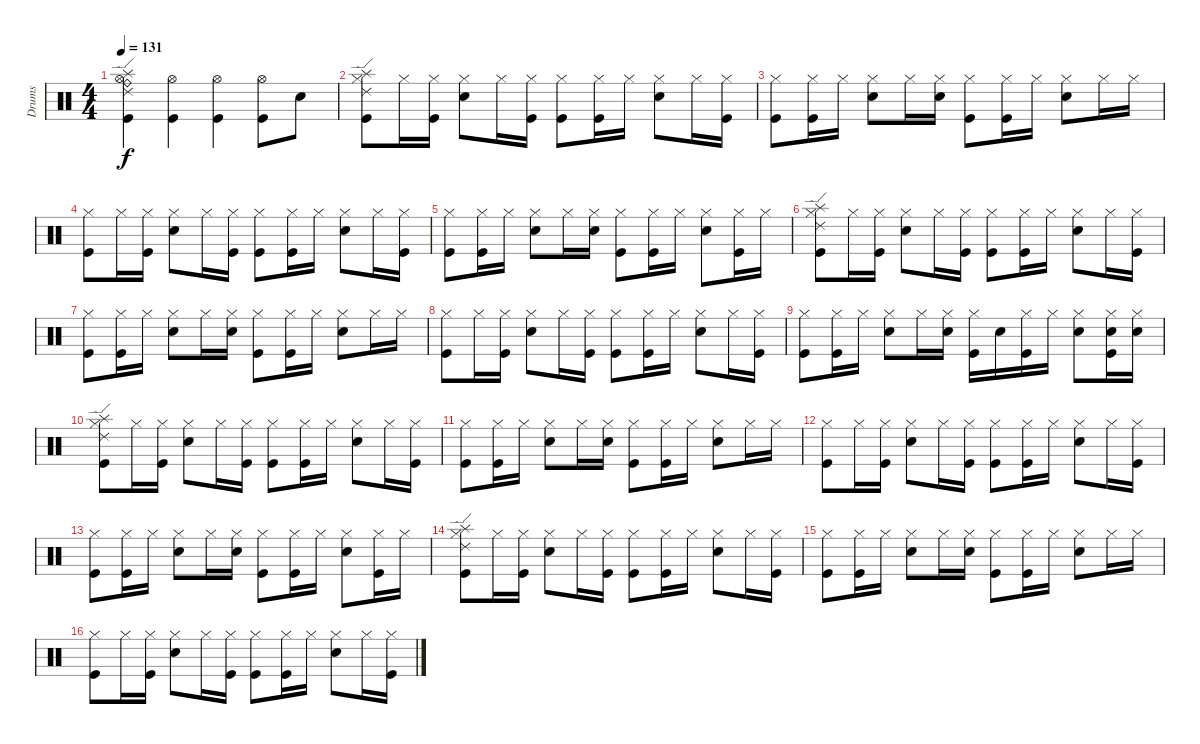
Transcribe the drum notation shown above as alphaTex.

\track ("Drums" "Drums") {instrument percussion}
\staff {score}
\articulation defaults
\ts (4 4)
\tempo 131
\clef neutral
\ks c
("Hi-Hat (open)" "Splash (hit)" "Ride (bell)" "Ride (edge) 2" "Kick (hit)").4{dy f} ("Hi-Hat (open)" "Kick (hit)").4 ("Hi-Hat (open)" "Kick (hit)").4 ("Hi-Hat (open)" "Kick (hit)").8 "Electric Snare (hit)".8 |
("Hi-Hat (closed)" "Splash (hit)" "Ride (edge) 2" "Kick (hit)").8 "Hi-Hat (closed)".16 ("Hi-Hat (closed)" "Kick (hit)").16 ("Hi-Hat (closed)" "Electric Snare (hit)").8 "Hi-Hat (closed)".16 ("Hi-Hat (closed)" "Kick (hit)").16 ("Hi-Hat (closed)" "Kick (hit)").8 ("Hi-Hat (closed)" "Kick (hit)").16 "Hi-Hat (closed)".16 ("Hi-Hat (closed)" "Electric Snare (hit)").8 "Hi-Hat (closed)".16 ("Hi-Hat (closed)" "Kick (hit)").16 |
("Hi-Hat (closed)" "Kick (hit)").8 ("Hi-Hat (closed)" "Kick (hit)").16 "Hi-Hat (closed)".16 ("Hi-Hat (closed)" "Electric Snare (hit)").8 "Hi-Hat (closed)".16 ("Hi-Hat (closed)" "Electric Snare (hit)").16 ("Hi-Hat (closed)" "Kick (hit)").8 ("Hi-Hat (closed)" "Kick (hit)").16 "Hi-Hat (closed)".16 ("Hi-Hat (closed)" "Electric Snare (hit)").8 "Hi-Hat (closed)".16 "Hi-Hat (closed)".16 |
("Hi-Hat (closed)" "Kick (hit)").8 "Hi-Hat (closed)".16 ("Hi-Hat (closed)" "Kick (hit)").16 ("Hi-Hat (closed)" "Electric Snare (hit)").8 "Hi-Hat (closed)".16 ("Hi-Hat (closed)" "Kick (hit)").16 ("Hi-Hat (closed)" "Kick (hit)").8 ("Hi-Hat (closed)" "Kick (hit)").16 "Hi-Hat (closed)".16 ("Hi-Hat (closed)" "Electric Snare (hit)").8 "Hi-Hat (closed)".16 ("Hi-Hat (closed)" "Kick (hit)").16 |
("Hi-Hat (closed)" "Kick (hit)").8 ("Hi-Hat (closed)" "Kick (hit)").16 "Hi-Hat (closed)".16 ("Hi-Hat (closed)" "Electric Snare (hit)").8 "Hi-Hat (closed)".16 ("Hi-Hat (closed)" "Electric Snare (hit)").16 ("Hi-Hat (closed)" "Kick (hit)").8 ("Hi-Hat (closed)" "Kick (hit)").16 "Hi-Hat (closed)".16 ("Hi-Hat (closed)" "Electric Snare (hit)").8 ("Hi-Hat (closed)" "Kick (hit)").16 "Hi-Hat (closed)".16 |
("Hi-Hat (closed)" "Splash (hit)" "Ride (edge) 2" "Kick (hit)").8 "Hi-Hat (closed)".16 ("Hi-Hat (closed)" "Kick (hit)").16 ("Hi-Hat (closed)" "Electric Snare (hit)").8 "Hi-Hat (closed)".16 ("Hi-Hat (closed)" "Kick (hit)").16 ("Hi-Hat (closed)" "Kick (hit)").8 ("Hi-Hat (closed)" "Kick (hit)").16 "Hi-Hat (closed)".16 ("Hi-Hat (closed)" "Electric Snare (hit)").8 "Hi-Hat (closed)".16 ("Hi-Hat (closed)" "Kick (hit)").16 |
("Hi-Hat (closed)" "Kick (hit)").8 ("Hi-Hat (closed)" "Kick (hit)").16 "Hi-Hat (closed)".16 ("Hi-Hat (closed)" "Electric Snare (hit)").8 "Hi-Hat (closed)".16 ("Hi-Hat (closed)" "Electric Snare (hit)").16 ("Hi-Hat (closed)" "Kick (hit)").8 ("Hi-Hat (closed)" "Kick (hit)").16 "Hi-Hat (closed)".16 ("Hi-Hat (closed)" "Electric Snare (hit)").8 "Hi-Hat (closed)".16 "Hi-Hat (closed)".16 |
("Hi-Hat (closed)" "Kick (hit)").8 "Hi-Hat (closed)".16 ("Hi-Hat (closed)" "Kick (hit)").16 ("Hi-Hat (closed)" "Electric Snare (hit)").8 "Hi-Hat (closed)".16 ("Hi-Hat (closed)" "Kick (hit)").16 ("Hi-Hat (closed)" "Kick (hit)").8 ("Hi-Hat (closed)" "Kick (hit)").16 "Hi-Hat (closed)".16 ("Hi-Hat (closed)" "Electric Snare (hit)").8 "Hi-Hat (closed)".16 ("Hi-Hat (closed)" "Kick (hit)").16 |
("Hi-Hat (closed)" "Kick (hit)").8 ("Hi-Hat (closed)" "Kick (hit)").16 "Hi-Hat (closed)".16 ("Hi-Hat (closed)" "Electric Snare (hit)").8 "Hi-Hat (closed)".16 ("Hi-Hat (closed)" "Electric Snare (hit)").16 ("Hi-Hat (closed)" "Kick (hit)").16 "Electric Snare (hit)".16 ("Hi-Hat (closed)" "Kick (hit)").16 "Hi-Hat (closed)".16 ("Hi-Hat (closed)" "Electric Snare (hit)").8 ("Hi-Hat (closed)" "Electric Snare (hit)" "Kick (hit)").16 ("Hi-Hat (closed)" "Electric Snare (hit)").16 |
("Hi-Hat (closed)" "Splash (hit)" "Ride (edge) 2" "Kick (hit)").8 "Hi-Hat (closed)".16 ("Hi-Hat (closed)" "Kick (hit)").16 ("Hi-Hat (closed)" "Electric Snare (hit)").8 "Hi-Hat (closed)".16 ("Hi-Hat (closed)" "Kick (hit)").16 ("Hi-Hat (closed)" "Kick (hit)").8 ("Hi-Hat (closed)" "Kick (hit)").16 "Hi-Hat (closed)".16 ("Hi-Hat (closed)" "Electric Snare (hit)").8 "Hi-Hat (closed)".16 ("Hi-Hat (closed)" "Kick (hit)").16 |
("Hi-Hat (closed)" "Kick (hit)").8 ("Hi-Hat (closed)" "Kick (hit)").16 "Hi-Hat (closed)".16 ("Hi-Hat (closed)" "Electric Snare (hit)").8 "Hi-Hat (closed)".16 ("Hi-Hat (closed)" "Electric Snare (hit)").16 ("Hi-Hat (closed)" "Kick (hit)").8 ("Hi-Hat (closed)" "Kick (hit)").16 "Hi-Hat (closed)".16 ("Hi-Hat (closed)" "Electric Snare (hit)").8 "Hi-Hat (closed)".16 "Hi-Hat (closed)".16 |
("Hi-Hat (closed)" "Kick (hit)").8 "Hi-Hat (closed)".16 ("Hi-Hat (closed)" "Kick (hit)").16 ("Hi-Hat (closed)" "Electric Snare (hit)").8 "Hi-Hat (closed)".16 ("Hi-Hat (closed)" "Kick (hit)").16 ("Hi-Hat (closed)" "Kick (hit)").8 ("Hi-Hat (closed)" "Kick (hit)").16 "Hi-Hat (closed)".16 ("Hi-Hat (closed)" "Electric Snare (hit)").8 "Hi-Hat (closed)".16 ("Hi-Hat (closed)" "Kick (hit)").16 |
("Hi-Hat (closed)" "Kick (hit)").8 ("Hi-Hat (closed)" "Kick (hit)").16 "Hi-Hat (closed)".16 ("Hi-Hat (closed)" "Electric Snare (hit)").8 "Hi-Hat (closed)".16 ("Hi-Hat (closed)" "Electric Snare (hit)").16 ("Hi-Hat (closed)" "Kick (hit)").8 ("Hi-Hat (closed)" "Kick (hit)").16 "Hi-Hat (closed)".16 ("Hi-Hat (closed)" "Electric Snare (hit)").8 ("Hi-Hat (closed)" "Kick (hit)").16 "Hi-Hat (closed)".16 |
("Hi-Hat (closed)" "Splash (hit)" "Ride (edge) 2" "Kick (hit)").8 "Hi-Hat (closed)".16 ("Hi-Hat (closed)" "Kick (hit)").16 ("Hi-Hat (closed)" "Electric Snare (hit)").8 "Hi-Hat (closed)".16 ("Hi-Hat (closed)" "Kick (hit)").16 ("Hi-Hat (closed)" "Kick (hit)").8 ("Hi-Hat (closed)" "Kick (hit)").16 "Hi-Hat (closed)".16 ("Hi-Hat (closed)" "Electric Snare (hit)").8 "Hi-Hat (closed)".16 ("Hi-Hat (closed)" "Kick (hit)").16 |
("Hi-Hat (closed)" "Kick (hit)").8 ("Hi-Hat (closed)" "Kick (hit)").16 "Hi-Hat (closed)".16 ("Hi-Hat (closed)" "Electric Snare (hit)").8 "Hi-Hat (closed)".16 ("Hi-Hat (closed)" "Electric Snare (hit)").16 ("Hi-Hat (closed)" "Kick (hit)").8 ("Hi-Hat (closed)" "Kick (hit)").16 "Hi-Hat (closed)".16 ("Hi-Hat (closed)" "Electric Snare (hit)").8 "Hi-Hat (closed)".16 "Hi-Hat (closed)".16 |
("Hi-Hat (closed)" "Kick (hit)").8 "Hi-Hat (closed)".16 ("Hi-Hat (closed)" "Kick (hit)").16 ("Hi-Hat (closed)" "Electric Snare (hit)").8 "Hi-Hat (closed)".16 ("Hi-Hat (closed)" "Kick (hit)").16 ("Hi-Hat (closed)" "Kick (hit)").8 ("Hi-Hat (closed)" "Kick (hit)").16 "Hi-Hat (closed)".16 ("Hi-Hat (closed)" "Electric Snare (hit)").8 "Hi-Hat (closed)".16 ("Hi-Hat (closed)" "Kick (hit)").16
